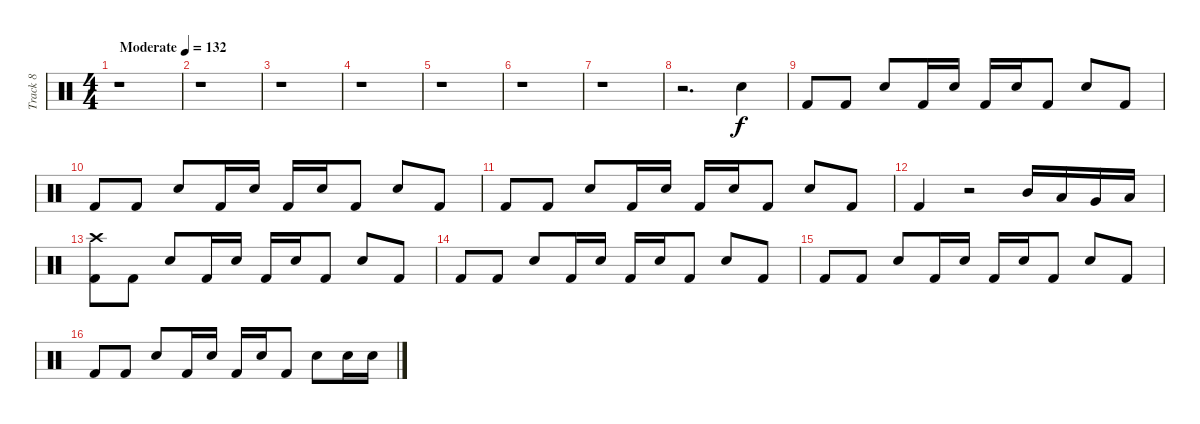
\track ("Track 8" "Track 8") {instrument percussion}
\staff {score}
\articulation defaults
\ts (4 4)
\tempo (132 "Moderate")
\clef neutral
\ks c
r.1{dy f} |
r.1 |
r.1 |
r.1 |
r.1 |
r.1 |
r.1 |
r.2{d} "Snare (hit) 2".4 |
"Kick (hit) 2".8 "Kick (hit) 2".8 "Snare (hit) 2".8 "Kick (hit) 2".16 "Snare (hit) 2".16 "Kick (hit) 2".16 "Snare (hit) 2".16 "Kick (hit) 2".8 "Snare (hit) 2".8 "Kick (hit) 2".8 |
"Kick (hit) 2".8 "Kick (hit) 2".8 "Snare (hit) 2".8 "Kick (hit) 2".16 "Snare (hit) 2".16 "Kick (hit) 2".16 "Snare (hit) 2".16 "Kick (hit) 2".8 "Snare (hit) 2".8 "Kick (hit) 2".8 |
"Kick (hit) 2".8 "Kick (hit) 2".8 "Snare (hit) 2".8 "Kick (hit) 2".16 "Snare (hit) 2".16 "Kick (hit) 2".16 "Snare (hit) 2".16 "Kick (hit) 2".8 "Snare (hit) 2".8 "Kick (hit) 2".8 |
"Kick (hit) 2".4 r.2 "Mid Tom (hit)".16 "Low Tom (hit)".16 "Very Low Tom (hit)".16 "Low Floor Tom (hit)".16 |
("Kick (hit) 2" "Crash high (hit)").8 "Kick (hit) 2".8 "Snare (hit) 2".8 "Kick (hit) 2".16 "Snare (hit) 2".16 "Kick (hit) 2".16 "Snare (hit) 2".16 "Kick (hit) 2".8 "Snare (hit) 2".8 "Kick (hit) 2".8 |
"Kick (hit) 2".8 "Kick (hit) 2".8 "Snare (hit) 2".8 "Kick (hit) 2".16 "Snare (hit) 2".16 "Kick (hit) 2".16 "Snare (hit) 2".16 "Kick (hit) 2".8 "Snare (hit) 2".8 "Kick (hit) 2".8 |
"Kick (hit) 2".8 "Kick (hit) 2".8 "Snare (hit) 2".8 "Kick (hit) 2".16 "Snare (hit) 2".16 "Kick (hit) 2".16 "Snare (hit) 2".16 "Kick (hit) 2".8 "Snare (hit) 2".8 "Kick (hit) 2".8 |
"Kick (hit) 2".8 "Kick (hit) 2".8 "Snare (hit) 2".8 "Kick (hit) 2".16 "Snare (hit) 2".16 "Kick (hit) 2".16 "Snare (hit) 2".16 "Kick (hit) 2".8 "Snare (hit) 2".8 "Snare (hit) 2".16 "Snare (hit) 2".16
